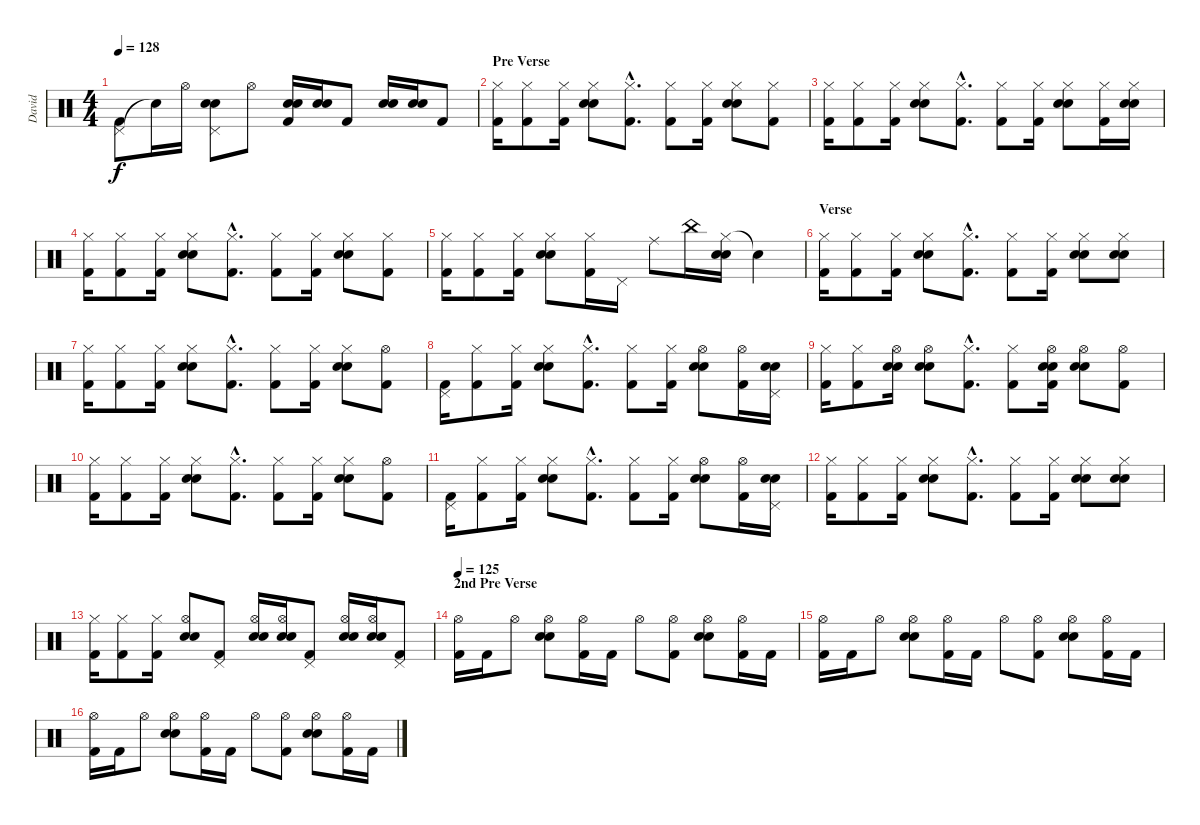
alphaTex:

\track ("David" "David") {instrument percussion}
\staff {score}
\articulation defaults
\ts (4 4)
\tempo 128
\clef neutral
\ks c
("Pedal Hi-Hat (hit)" "Kick (hit) 2").8{dy f} "Snare (hit)"{t}.16 "Hi-Hat (open)".16 ("Electric Snare (hit)" "Snare (hit) 2" "Pedal Hi-Hat (hit)").8 "Hi-Hat (open)".8 ("Electric Snare (hit)" "Snare (hit) 2" "Kick (hit) 2").16 ("Electric Snare (hit)" "Snare (hit) 2").16 "Kick (hit) 2".8 ("Electric Snare (hit)" "Snare (hit) 2").16 ("Electric Snare (hit)" "Snare (hit) 2").16 "Kick (hit) 2".8 |
\section ("" "Pre Verse")
("Hi-Hat (closed)" "Kick (hit) 2").16 ("Hi-Hat (closed)" "Kick (hit) 2").8 ("Hi-Hat (closed)" "Kick (hit) 2").16 ("Hi-Hat (closed)" "Electric Snare (hit)" "Snare (hit) 2").8 ("Hi-Hat (closed)"{hac} "Kick (hit) 2"{hac}).8{d} ("Hi-Hat (closed)" "Kick (hit) 2").8 ("Hi-Hat (closed)" "Kick (hit) 2").16 ("Hi-Hat (closed)" "Electric Snare (hit)" "Snare (hit) 2").8 ("Hi-Hat (closed)" "Kick (hit) 2").8 |
("Hi-Hat (closed)" "Kick (hit) 2").16 ("Hi-Hat (closed)" "Kick (hit) 2").8 ("Hi-Hat (closed)" "Kick (hit) 2").16 ("Hi-Hat (closed)" "Electric Snare (hit)" "Snare (hit) 2").8 ("Hi-Hat (closed)"{hac} "Kick (hit) 2"{hac}).8{d} ("Hi-Hat (closed)" "Kick (hit) 2").8 ("Hi-Hat (closed)" "Kick (hit) 2").16 ("Hi-Hat (closed)" "Electric Snare (hit)" "Snare (hit) 2").8 ("Hi-Hat (closed)" "Kick (hit) 2").16 ("Hi-Hat (closed)" "Electric Snare (hit)" "Snare (hit) 2").16 |
("Hi-Hat (closed)" "Kick (hit) 2").16 ("Hi-Hat (closed)" "Kick (hit) 2").8 ("Hi-Hat (closed)" "Kick (hit) 2").16 ("Hi-Hat (closed)" "Electric Snare (hit)" "Snare (hit) 2").8 ("Hi-Hat (closed)"{hac} "Kick (hit) 2"{hac}).8{d} ("Hi-Hat (closed)" "Kick (hit) 2").8 ("Hi-Hat (closed)" "Kick (hit) 2").16 ("Hi-Hat (closed)" "Electric Snare (hit)" "Snare (hit) 2").8 ("Hi-Hat (closed)" "Kick (hit) 2").8 |
("Hi-Hat (closed)" "Kick (hit) 2").16 ("Hi-Hat (closed)" "Kick (hit) 2").8 ("Hi-Hat (closed)" "Kick (hit) 2").16 ("Hi-Hat (closed)" "Electric Snare (hit)" "Snare (hit) 2").8 ("Hi-Hat (closed)" "Kick (hit) 2").16 "Pedal Hi-Hat (hit)".16 "Ride (middle)".8 "China (hit)".16 ("Hi-Hat (closed)" "Electric Snare (hit)" "Snare (hit) 2").16 "Snare (hit)"{t}.4 |
\section ("" "Verse")
("Hi-Hat (closed)" "Kick (hit) 2").16 ("Hi-Hat (closed)" "Kick (hit) 2").8 ("Hi-Hat (closed)" "Kick (hit) 2").16 ("Hi-Hat (closed)" "Electric Snare (hit)" "Snare (hit) 2").8 ("Hi-Hat (closed)"{hac} "Kick (hit) 2"{hac}).8{d} ("Hi-Hat (closed)" "Kick (hit) 2").8 ("Hi-Hat (closed)" "Kick (hit) 2").16 ("Hi-Hat (closed)" "Electric Snare (hit)" "Snare (hit) 2").8 ("Hi-Hat (closed)" "Electric Snare (hit)" "Snare (hit) 2").8 |
("Hi-Hat (closed)" "Kick (hit) 2").16 ("Hi-Hat (closed)" "Kick (hit) 2").8 ("Hi-Hat (closed)" "Kick (hit) 2").16 ("Hi-Hat (closed)" "Electric Snare (hit)" "Snare (hit) 2").8 ("Hi-Hat (closed)"{hac} "Kick (hit) 2"{hac}).8{d} ("Hi-Hat (closed)" "Kick (hit) 2").8 ("Hi-Hat (closed)" "Kick (hit) 2").16 ("Hi-Hat (closed)" "Electric Snare (hit)" "Snare (hit) 2").8 ("Hi-Hat (open)" "Kick (hit) 2").8 |
("Pedal Hi-Hat (hit)" "Kick (hit) 2").16 ("Hi-Hat (closed)" "Kick (hit) 2").8 ("Hi-Hat (closed)" "Kick (hit) 2").16 ("Hi-Hat (closed)" "Electric Snare (hit)" "Snare (hit) 2").8 ("Hi-Hat (closed)"{hac} "Kick (hit) 2"{hac}).8{d} ("Hi-Hat (closed)" "Kick (hit) 2").8 ("Hi-Hat (closed)" "Kick (hit) 2").16 ("Hi-Hat (open)" "Electric Snare (hit)" "Snare (hit) 2").8 ("Hi-Hat (open)" "Kick (hit) 2").16 ("Pedal Hi-Hat (hit)" "Electric Snare (hit)" "Snare (hit) 2").16 |
("Hi-Hat (closed)" "Kick (hit) 2").16 ("Hi-Hat (closed)" "Kick (hit) 2").8 ("Hi-Hat (open)" "Electric Snare (hit)" "Snare (hit) 2").16 ("Hi-Hat (open)" "Electric Snare (hit)" "Snare (hit) 2").8 ("Hi-Hat (closed)"{hac} "Kick (hit) 2"{hac}).8{d} ("Hi-Hat (closed)" "Kick (hit) 2").8 ("Snare (hit) 2" "Hi-Hat (open)" "Electric Snare (hit)" "Kick (hit) 2").16 ("Snare (hit) 2" "Hi-Hat (open)" "Electric Snare (hit)").8 ("Hi-Hat (open)" "Kick (hit) 2").8 |
("Hi-Hat (closed)" "Kick (hit) 2").16 ("Hi-Hat (closed)" "Kick (hit) 2").8 ("Hi-Hat (closed)" "Kick (hit) 2").16 ("Hi-Hat (closed)" "Electric Snare (hit)" "Snare (hit) 2").8 ("Hi-Hat (closed)"{hac} "Kick (hit) 2"{hac}).8{d} ("Hi-Hat (closed)" "Kick (hit) 2").8 ("Hi-Hat (closed)" "Kick (hit) 2").16 ("Hi-Hat (closed)" "Electric Snare (hit)" "Snare (hit) 2").8 ("Hi-Hat (open)" "Kick (hit) 2").8 |
("Pedal Hi-Hat (hit)" "Kick (hit) 2").16 ("Hi-Hat (closed)" "Kick (hit) 2").8 ("Hi-Hat (closed)" "Kick (hit) 2").16 ("Hi-Hat (closed)" "Electric Snare (hit)" "Snare (hit) 2").8 ("Hi-Hat (closed)"{hac} "Kick (hit) 2"{hac}).8{d} ("Hi-Hat (closed)" "Kick (hit) 2").8 ("Hi-Hat (closed)" "Kick (hit) 2").16 ("Hi-Hat (open)" "Electric Snare (hit)" "Snare (hit) 2").8 ("Hi-Hat (open)" "Kick (hit) 2").16 ("Pedal Hi-Hat (hit)" "Electric Snare (hit)" "Snare (hit) 2").16 |
("Hi-Hat (closed)" "Kick (hit) 2").16 ("Hi-Hat (closed)" "Kick (hit) 2").8 ("Hi-Hat (closed)" "Kick (hit) 2").16 ("Hi-Hat (closed)" "Electric Snare (hit)" "Snare (hit) 2").8 ("Hi-Hat (closed)"{hac} "Kick (hit) 2"{hac}).8{d} ("Hi-Hat (closed)" "Kick (hit) 2").8 ("Hi-Hat (closed)" "Kick (hit) 2").16 ("Hi-Hat (closed)" "Electric Snare (hit)" "Snare (hit) 2").8 ("Hi-Hat (closed)" "Electric Snare (hit)" "Snare (hit) 2").8 |
("Hi-Hat (closed)" "Kick (hit) 2").16 ("Hi-Hat (closed)" "Kick (hit) 2").8 ("Hi-Hat (closed)" "Kick (hit) 2").16 ("Hi-Hat (open)" "Electric Snare (hit)" "Snare (hit) 2").8 ("Pedal Hi-Hat (hit)" "Kick (hit) 2").8 ("Hi-Hat (open)" "Electric Snare (hit)" "Snare (hit) 2").16 ("Hi-Hat (open)" "Electric Snare (hit)" "Snare (hit) 2").16 ("Pedal Hi-Hat (hit)" "Kick (hit) 2").8 ("Hi-Hat (open)" "Electric Snare (hit)" "Snare (hit) 2").16 ("Hi-Hat (open)" "Electric Snare (hit)" "Snare (hit) 2").16 ("Pedal Hi-Hat (hit)" "Kick (hit) 2").8 |
\section ("" "2nd Pre Verse")
\tempo 125
("Hi-Hat (open)" "Kick (hit) 2").16 "Kick (hit) 2".16 "Hi-Hat (open)".8 ("Hi-Hat (open)" "Electric Snare (hit)" "Snare (hit) 2").8 ("Hi-Hat (open)" "Kick (hit) 2").16 "Kick (hit) 2".16 "Hi-Hat (open)".8 ("Hi-Hat (open)" "Kick (hit) 2").8 ("Hi-Hat (open)" "Electric Snare (hit)" "Snare (hit) 2").8 ("Hi-Hat (open)" "Kick (hit) 2").16 "Kick (hit) 2".16 |
("Hi-Hat (open)" "Kick (hit) 2").16 "Kick (hit) 2".16 "Hi-Hat (open)".8 ("Hi-Hat (open)" "Electric Snare (hit)" "Snare (hit) 2").8 ("Hi-Hat (open)" "Kick (hit) 2").16 "Kick (hit) 2".16 "Hi-Hat (open)".8 ("Hi-Hat (open)" "Kick (hit) 2").8 ("Hi-Hat (open)" "Electric Snare (hit)" "Snare (hit) 2").8 ("Hi-Hat (open)" "Kick (hit) 2").16 "Kick (hit) 2".16 |
("Hi-Hat (open)" "Kick (hit) 2").16 "Kick (hit) 2".16 "Hi-Hat (open)".8 ("Hi-Hat (open)" "Electric Snare (hit)" "Snare (hit) 2").8 ("Hi-Hat (open)" "Kick (hit) 2").16 "Kick (hit) 2".16 "Hi-Hat (open)".8 ("Hi-Hat (open)" "Kick (hit) 2").8 ("Hi-Hat (open)" "Electric Snare (hit)" "Snare (hit) 2").8 ("Hi-Hat (open)" "Kick (hit) 2").16 "Kick (hit) 2".16
